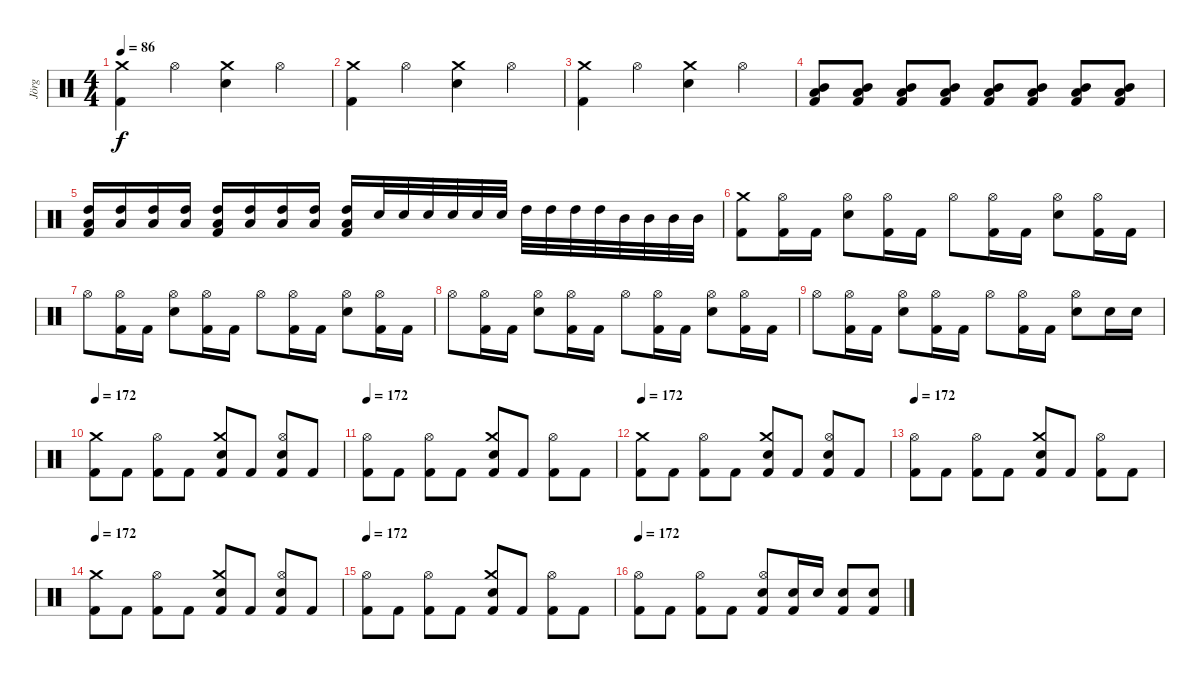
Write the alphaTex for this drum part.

\track ("Jörg" "Jörg") {instrument percussion}
\staff {score}
\articulation defaults
\ts (4 4)
\tempo 86
\clef neutral
\ks c
("Kick (hit) 2" "Crash medium (hit)").4{dy f} "Hi-Hat (open)".4 ("Snare (hit) 2" "Crash medium (hit)").4 "Hi-Hat (open)".4 |
("Kick (hit) 2" "Crash medium (hit)").4 "Hi-Hat (open)".4 ("Snare (hit) 2" "Crash medium (hit)").4 "Hi-Hat (open)".4 |
("Kick (hit) 2" "Crash medium (hit)").4 "Hi-Hat (open)".4 ("Snare (hit) 2" "Crash medium (hit)").4 "Hi-Hat (open)".4 |
("Mid Tom (hit)" "Low Tom (hit)" "Kick (hit) 2").8 ("Mid Tom (hit)" "Low Tom (hit)" "Kick (hit) 2").8 ("Low Tom (hit)" "Mid Tom (hit)" "Kick (hit) 2").8 ("Mid Tom (hit)" "Low Tom (hit)" "Kick (hit) 2").8 ("Mid Tom (hit)" "Low Tom (hit)" "Kick (hit) 2").8 ("Mid Tom (hit)" "Low Tom (hit)" "Kick (hit) 2").8 ("Mid Tom (hit)" "Low Tom (hit)" "Kick (hit) 2").8 ("Mid Tom (hit)" "Low Tom (hit)" "Kick (hit) 2").8 |
("High Tom (hit)" "Low Tom (hit)" "Kick (hit) 2").16 ("High Tom (hit)" "Low Tom (hit)").16 ("High Tom (hit)" "Low Tom (hit)").16 ("High Tom (hit)" "Low Tom (hit)").16 ("Low Tom (hit)" "High Tom (hit)" "Kick (hit) 2").16 ("High Tom (hit)" "Low Tom (hit)").16 ("High Tom (hit)" "Low Tom (hit)").16 ("High Tom (hit)" "Low Tom (hit)").16 ("High Tom (hit)" "Low Tom (hit)" "Kick (hit) 2").16 "Snare (hit) 2".32 "Snare (hit) 2".32 "Snare (hit) 2".32 "Snare (hit) 2".32 "Snare (hit) 2".32 "Snare (hit) 2".32 "High Tom (hit)".32 "High Tom (hit)".32 "High Tom (hit)".32 "High Tom (hit)".32 "Mid Tom (hit)".32 "Mid Tom (hit)".32 "Mid Tom (hit)".32 "Mid Tom (hit)".32 |
("Kick (hit) 2" "Crash medium (hit)").8 ("Kick (hit) 2" "Hi-Hat (open)").16 "Kick (hit) 2".16 ("Snare (hit) 2" "Hi-Hat (open)").8 ("Kick (hit) 2" "Hi-Hat (open)").16 "Kick (hit) 2".16 "Hi-Hat (open)".8 ("Kick (hit) 2" "Hi-Hat (open)").16 "Kick (hit) 2".16 ("Snare (hit) 2" "Hi-Hat (open)").8 ("Kick (hit) 2" "Hi-Hat (open)").16 "Kick (hit) 2".16 |
"Hi-Hat (open)".8 ("Kick (hit) 2" "Hi-Hat (open)").16 "Kick (hit) 2".16 ("Snare (hit) 2" "Hi-Hat (open)").8 ("Kick (hit) 2" "Hi-Hat (open)").16 "Kick (hit) 2".16 "Hi-Hat (open)".8 ("Kick (hit) 2" "Hi-Hat (open)").16 "Kick (hit) 2".16 ("Snare (hit) 2" "Hi-Hat (open)").8 ("Kick (hit) 2" "Hi-Hat (open)").16 "Kick (hit) 2".16 |
"Hi-Hat (open)".8 ("Kick (hit) 2" "Hi-Hat (open)").16 "Kick (hit) 2".16 ("Snare (hit) 2" "Hi-Hat (open)").8 ("Kick (hit) 2" "Hi-Hat (open)").16 "Kick (hit) 2".16 "Hi-Hat (open)".8 ("Kick (hit) 2" "Hi-Hat (open)").16 "Kick (hit) 2".16 ("Snare (hit) 2" "Hi-Hat (open)").8 ("Kick (hit) 2" "Hi-Hat (open)").16 "Kick (hit) 2".16 |
"Hi-Hat (open)".8 ("Kick (hit) 2" "Hi-Hat (open)").16 "Kick (hit) 2".16 ("Snare (hit) 2" "Hi-Hat (open)").8 ("Kick (hit) 2" "Hi-Hat (open)").16 "Kick (hit) 2".16 "Hi-Hat (open)".8 ("Kick (hit) 2" "Hi-Hat (open)").16 "Kick (hit) 2".16 ("Snare (hit) 2" "Hi-Hat (open)").8 "Snare (hit) 2".16 "Snare (hit) 2".16 |
\tempo 172
("Kick (hit) 2" "Crash medium (hit)").8 "Kick (hit) 2".8 ("Kick (hit) 2" "Hi-Hat (open)").8 "Kick (hit) 2".8 ("Snare (hit) 2" "Kick (hit) 2" "Crash medium (hit)").8 "Kick (hit) 2".8 ("Snare (hit) 2" "Kick (hit) 2" "Hi-Hat (open)").8 "Kick (hit) 2".8 |
\tempo 172
("Kick (hit) 2" "Hi-Hat (open)").8 "Kick (hit) 2".8 ("Kick (hit) 2" "Hi-Hat (open)").8 "Kick (hit) 2".8 ("Snare (hit) 2" "Kick (hit) 2" "Crash medium (hit)").8 "Kick (hit) 2".8 ("Kick (hit) 2" "Hi-Hat (open)").8 "Kick (hit) 2".8 |
\tempo 172
("Kick (hit) 2" "Crash medium (hit)").8 "Kick (hit) 2".8 ("Kick (hit) 2" "Hi-Hat (open)").8 "Kick (hit) 2".8 ("Snare (hit) 2" "Kick (hit) 2" "Crash medium (hit)").8 "Kick (hit) 2".8 ("Snare (hit) 2" "Kick (hit) 2" "Hi-Hat (open)").8 "Kick (hit) 2".8 |
\tempo 172
("Kick (hit) 2" "Hi-Hat (open)").8 "Kick (hit) 2".8 ("Kick (hit) 2" "Hi-Hat (open)").8 "Kick (hit) 2".8 ("Snare (hit) 2" "Kick (hit) 2" "Crash medium (hit)").8 "Kick (hit) 2".8 ("Kick (hit) 2" "Hi-Hat (open)").8 "Kick (hit) 2".8 |
\tempo 172
("Kick (hit) 2" "Crash medium (hit)").8 "Kick (hit) 2".8 ("Kick (hit) 2" "Hi-Hat (open)").8 "Kick (hit) 2".8 ("Snare (hit) 2" "Kick (hit) 2" "Crash medium (hit)").8 "Kick (hit) 2".8 ("Snare (hit) 2" "Kick (hit) 2" "Hi-Hat (open)").8 "Kick (hit) 2".8 |
\tempo 172
("Kick (hit) 2" "Hi-Hat (open)").8 "Kick (hit) 2".8 ("Kick (hit) 2" "Hi-Hat (open)").8 "Kick (hit) 2".8 ("Snare (hit) 2" "Kick (hit) 2" "Crash medium (hit)").8 "Kick (hit) 2".8 ("Kick (hit) 2" "Hi-Hat (open)").8 "Kick (hit) 2".8 |
\tempo 172
("Hi-Hat (open)" "Kick (hit) 2").8 "Kick (hit) 2".8 ("Hi-Hat (open)" "Kick (hit) 2").8 "Kick (hit) 2".8 ("Snare (hit) 2" "Hi-Hat (open)" "Kick (hit) 2").8 ("Snare (hit) 2" "Kick (hit) 2").16 "Snare (hit) 2".16 ("Snare (hit) 2" "Kick (hit) 2").8 ("Snare (hit) 2" "Kick (hit) 2").8
